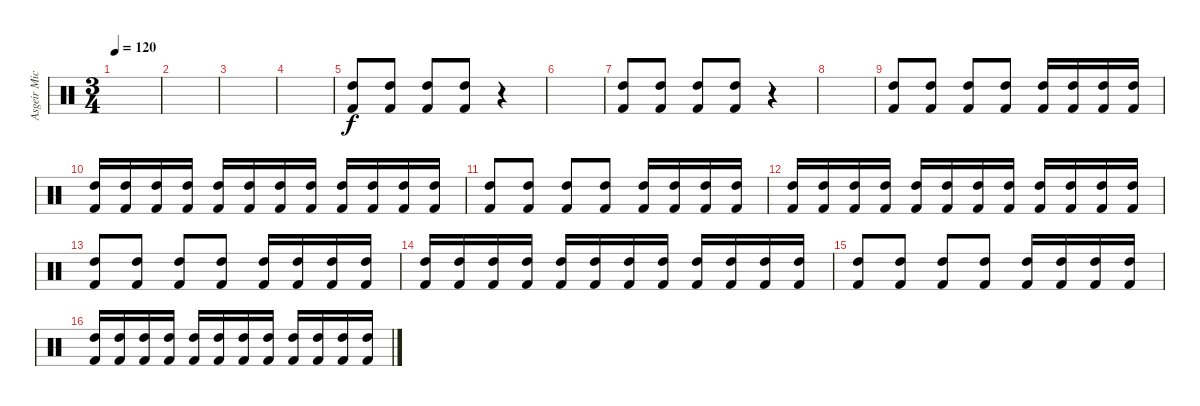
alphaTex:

\track ("Asgeir Mickelson" "Asgeir Mic") {instrument percussion}
\staff {score}
\articulation defaults
\ts (3 4)
\tempo 120
\clef neutral
\ks c
|
|
|
|
("High Tom (hit)" "Kick (hit) 2").8 ("High Tom (hit)" "Kick (hit) 2").8 ("High Tom (hit)" "Kick (hit) 2").8 ("High Tom (hit)" "Kick (hit) 2").8 r.4 |
|
("High Tom (hit)" "Kick (hit) 2").8 ("High Tom (hit)" "Kick (hit) 2").8 ("High Tom (hit)" "Kick (hit) 2").8 ("High Tom (hit)" "Kick (hit) 2").8 r.4 |
|
("High Tom (hit)" "Kick (hit) 2").8 ("High Tom (hit)" "Kick (hit) 2").8 ("High Tom (hit)" "Kick (hit) 2").8 ("High Tom (hit)" "Kick (hit) 2").8 ("High Tom (hit)" "Kick (hit) 2").16 ("High Tom (hit)" "Kick (hit) 2").16 ("High Tom (hit)" "Kick (hit) 2").16 ("High Tom (hit)" "Kick (hit) 2").16 |
("High Tom (hit)" "Kick (hit) 2").16 ("High Tom (hit)" "Kick (hit) 2").16 ("High Tom (hit)" "Kick (hit) 2").16 ("High Tom (hit)" "Kick (hit) 2").16 ("High Tom (hit)" "Kick (hit) 2").16 ("High Tom (hit)" "Kick (hit) 2").16 ("High Tom (hit)" "Kick (hit) 2").16 ("High Tom (hit)" "Kick (hit) 2").16 ("High Tom (hit)" "Kick (hit) 2").16 ("High Tom (hit)" "Kick (hit) 2").16 ("High Tom (hit)" "Kick (hit) 2").16 ("High Tom (hit)" "Kick (hit) 2").16 |
("High Tom (hit)" "Kick (hit) 2").8 ("High Tom (hit)" "Kick (hit) 2").8 ("High Tom (hit)" "Kick (hit) 2").8 ("High Tom (hit)" "Kick (hit) 2").8 ("High Tom (hit)" "Kick (hit) 2").16 ("High Tom (hit)" "Kick (hit) 2").16 ("High Tom (hit)" "Kick (hit) 2").16 ("High Tom (hit)" "Kick (hit) 2").16 |
("High Tom (hit)" "Kick (hit) 2").16 ("High Tom (hit)" "Kick (hit) 2").16 ("High Tom (hit)" "Kick (hit) 2").16 ("High Tom (hit)" "Kick (hit) 2").16 ("High Tom (hit)" "Kick (hit) 2").16 ("High Tom (hit)" "Kick (hit) 2").16 ("High Tom (hit)" "Kick (hit) 2").16 ("High Tom (hit)" "Kick (hit) 2").16 ("High Tom (hit)" "Kick (hit) 2").16 ("High Tom (hit)" "Kick (hit) 2").16 ("High Tom (hit)" "Kick (hit) 2").16 ("High Tom (hit)" "Kick (hit) 2").16 |
("High Tom (hit)" "Kick (hit) 2").8 ("High Tom (hit)" "Kick (hit) 2").8 ("High Tom (hit)" "Kick (hit) 2").8 ("High Tom (hit)" "Kick (hit) 2").8 ("High Tom (hit)" "Kick (hit) 2").16 ("High Tom (hit)" "Kick (hit) 2").16 ("High Tom (hit)" "Kick (hit) 2").16 ("High Tom (hit)" "Kick (hit) 2").16 |
("High Tom (hit)" "Kick (hit) 2").16 ("High Tom (hit)" "Kick (hit) 2").16 ("High Tom (hit)" "Kick (hit) 2").16 ("High Tom (hit)" "Kick (hit) 2").16 ("High Tom (hit)" "Kick (hit) 2").16 ("High Tom (hit)" "Kick (hit) 2").16 ("High Tom (hit)" "Kick (hit) 2").16 ("High Tom (hit)" "Kick (hit) 2").16 ("High Tom (hit)" "Kick (hit) 2").16 ("High Tom (hit)" "Kick (hit) 2").16 ("High Tom (hit)" "Kick (hit) 2").16 ("High Tom (hit)" "Kick (hit) 2").16 |
("High Tom (hit)" "Kick (hit) 2").8 ("High Tom (hit)" "Kick (hit) 2").8 ("High Tom (hit)" "Kick (hit) 2").8 ("High Tom (hit)" "Kick (hit) 2").8 ("High Tom (hit)" "Kick (hit) 2").16 ("High Tom (hit)" "Kick (hit) 2").16 ("High Tom (hit)" "Kick (hit) 2").16 ("High Tom (hit)" "Kick (hit) 2").16 |
("High Tom (hit)" "Kick (hit) 2").16 ("High Tom (hit)" "Kick (hit) 2").16 ("High Tom (hit)" "Kick (hit) 2").16 ("High Tom (hit)" "Kick (hit) 2").16 ("High Tom (hit)" "Kick (hit) 2").16 ("High Tom (hit)" "Kick (hit) 2").16 ("High Tom (hit)" "Kick (hit) 2").16 ("High Tom (hit)" "Kick (hit) 2").16 ("High Tom (hit)" "Kick (hit) 2").16 ("High Tom (hit)" "Kick (hit) 2").16 ("High Tom (hit)" "Kick (hit) 2").16 ("High Tom (hit)" "Kick (hit) 2").16
